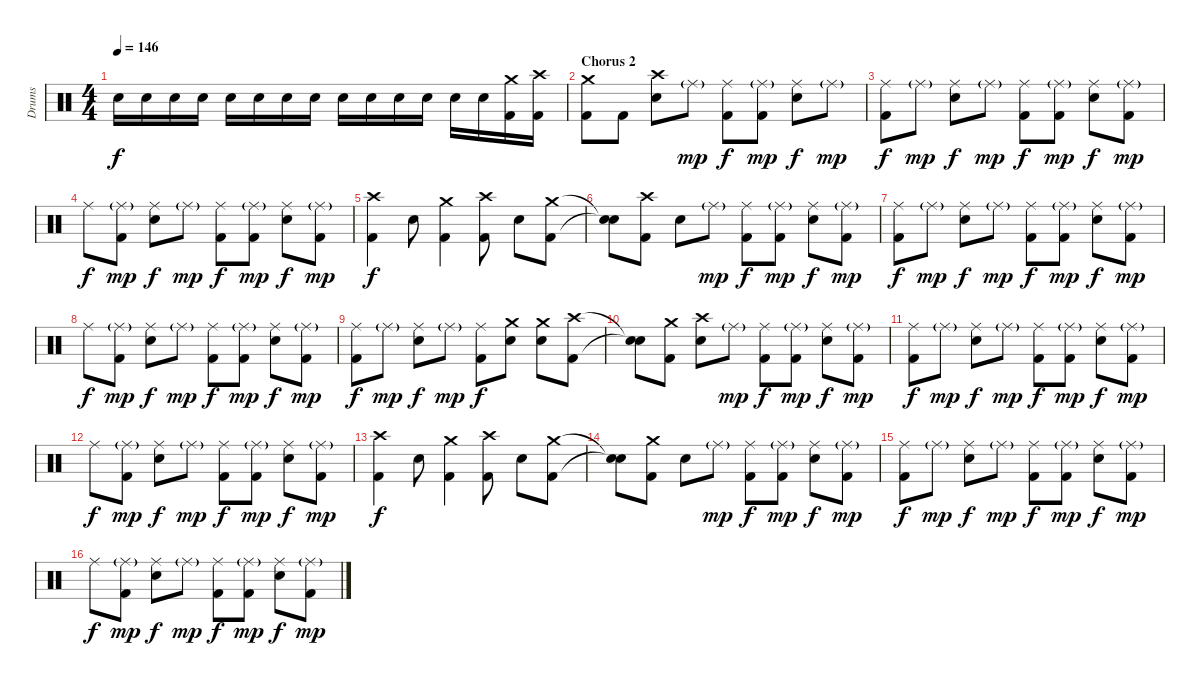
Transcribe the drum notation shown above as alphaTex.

\track ("Drums" "Drums") {instrument percussion}
\staff {score}
\articulation defaults
\ts (4 4)
\tempo 146
\clef neutral
\ks c "Snare (hit) 2".16{dy f} "Snare (hit) 2".16 "Snare (hit) 2".16 "Snare (hit) 2".16 "Snare (hit) 2".16 "Snare (hit) 2".16 "Snare (hit) 2".16 "Snare (hit) 2".16 "Snare (hit) 2".16 "Snare (hit) 2".16 "Snare (hit) 2".16 "Snare (hit) 2".16 "Snare (hit) 2".16 "Snare (hit) 2".16
("Crash medium (hit)" "Kick (hit) 2").16 ("Crash high (hit)" "Kick (hit) 2").16 |
\section ("" "Chorus 2")
("Crash medium (hit)" "Kick (hit) 2").8 "Kick (hit) 2".8 ("Crash high (hit)" "Snare (hit) 2").8 "Ride (middle)"{g}.8{dy mp} ("Ride (middle)" "Kick (hit) 2").8{dy f} ("Ride (middle)"{g} "Kick (hit) 2").8{dy mp} ("Ride (middle)" "Snare (hit) 2").8{dy f} "Ride (middle)"{g}.8{dy mp} |
("Ride (middle)" "Kick (hit) 2").8{dy f} "Ride (middle)"{g}.8{dy mp} ("Ride (middle)" "Snare (hit) 2").8{dy f} "Ride (middle)"{g}.8{dy mp} ("Ride (middle)" "Kick (hit) 2").8{dy f} ("Ride (middle)"{g} "Kick (hit) 2").8{dy mp} ("Ride (middle)" "Snare (hit) 2").8{dy f} ("Ride (middle)"{g} "Kick (hit) 2").8{dy mp} |
"Ride (middle)".8{dy f} ("Ride (middle)"{g} "Kick (hit) 2").8{dy mp} ("Ride (middle)" "Snare (hit) 2").8{dy f} "Ride (middle)"{g}.8{dy mp} ("Ride (middle)" "Kick (hit) 2").8{dy f} ("Ride (middle)"{g} "Kick (hit) 2").8{dy mp} ("Ride (middle)" "Snare (hit) 2").8{dy f} ("Ride (middle)"{g} "Kick (hit) 2").8{dy mp} |
("Crash high (hit)" "Kick (hit) 2").4{dy f} "Snare (hit) 2".8 ("Crash medium (hit)" "Kick (hit) 2").4 ("Crash high (hit)" "Kick (hit) 2").8 "Snare (hit) 2".8 ("Crash medium (hit)" "Kick (hit) 2").8 |
("Snare (hit)"{t} "Snare (hit)"{t}).8 ("Crash high (hit)" "Kick (hit) 2").8 "Snare (hit) 2".8 "Ride (middle)"{g}.8{dy mp} ("Ride (middle)" "Kick (hit) 2").8{dy f} ("Ride (middle)"{g} "Kick (hit) 2").8{dy mp} ("Ride (middle)" "Snare (hit) 2").8{dy f} ("Ride (middle)"{g} "Kick (hit) 2").8{dy mp} |
("Ride (middle)" "Kick (hit) 2").8{dy f} "Ride (middle)"{g}.8{dy mp} ("Ride (middle)" "Snare (hit) 2").8{dy f} "Ride (middle)"{g}.8{dy mp} ("Ride (middle)" "Kick (hit) 2").8{dy f} ("Ride (middle)"{g} "Kick (hit) 2").8{dy mp} ("Ride (middle)" "Snare (hit) 2").8{dy f} ("Ride (middle)"{g} "Kick (hit) 2").8{dy mp} |
"Ride (middle)".8{dy f} ("Ride (middle)"{g} "Kick (hit) 2").8{dy mp} ("Ride (middle)" "Snare (hit) 2").8{dy f} "Ride (middle)"{g}.8{dy mp} ("Ride (middle)" "Kick (hit) 2").8{dy f} ("Ride (middle)"{g} "Kick (hit) 2").8{dy mp} ("Ride (middle)" "Snare (hit) 2").8{dy f} ("Ride (middle)"{g} "Kick (hit) 2").8{dy mp} |
("Ride (middle)" "Kick (hit) 2").8{dy f} "Ride (middle)"{g}.8{dy mp} ("Ride (middle)" "Snare (hit) 2").8{dy f} "Ride (middle)"{g}.8{dy mp} ("Ride (middle)" "Kick (hit) 2").8{dy f} ("Crash medium (hit)" "Snare (hit) 2").8 ("Crash medium (hit)" "Snare (hit) 2").8 ("Crash high (hit)" "Kick (hit) 2").8 |
("Snare (hit)"{t} "Snare (hit)"{t}).8 ("Crash medium (hit)" "Kick (hit) 2").8 ("Crash high (hit)" "Snare (hit) 2").8 "Ride (middle)"{g}.8{dy mp} ("Ride (middle)" "Kick (hit) 2").8{dy f} ("Ride (middle)"{g} "Kick (hit) 2").8{dy mp} ("Ride (middle)" "Snare (hit) 2").8{dy f} ("Ride (middle)"{g} "Kick (hit) 2").8{dy mp} |
("Ride (middle)" "Kick (hit) 2").8{dy f} "Ride (middle)"{g}.8{dy mp} ("Ride (middle)" "Snare (hit) 2").8{dy f} "Ride (middle)"{g}.8{dy mp} ("Ride (middle)" "Kick (hit) 2").8{dy f} ("Ride (middle)"{g} "Kick (hit) 2").8{dy mp} ("Ride (middle)" "Snare (hit) 2").8{dy f} ("Ride (middle)"{g} "Kick (hit) 2").8{dy mp} |
"Ride (middle)".8{dy f} ("Ride (middle)"{g} "Kick (hit) 2").8{dy mp} ("Ride (middle)" "Snare (hit) 2").8{dy f} "Ride (middle)"{g}.8{dy mp} ("Ride (middle)" "Kick (hit) 2").8{dy f} ("Ride (middle)"{g} "Kick (hit) 2").8{dy mp} ("Ride (middle)" "Snare (hit) 2").8{dy f} ("Ride (middle)"{g} "Kick (hit) 2").8{dy mp} |
("Crash high (hit)" "Kick (hit) 2").4{dy f} "Snare (hit) 2".8 ("Crash medium (hit)" "Kick (hit) 2").4 ("Crash high (hit)" "Kick (hit) 2").8 "Snare (hit) 2".8 ("Crash medium (hit)" "Kick (hit) 2").8 |
("Snare (hit)"{t} "Snare (hit)"{t}).8 ("Crash medium (hit)" "Kick (hit) 2").8 "Snare (hit) 2".8 "Ride (middle)"{g}.8{dy mp} ("Ride (middle)" "Kick (hit) 2").8{dy f} ("Ride (middle)"{g} "Kick (hit) 2").8{dy mp} ("Ride (middle)" "Snare (hit) 2").8{dy f} ("Ride (middle)"{g} "Kick (hit) 2").8{dy mp} |
("Ride (middle)" "Kick (hit) 2").8{dy f} "Ride (middle)"{g}.8{dy mp} ("Ride (middle)" "Snare (hit) 2").8{dy f} "Ride (middle)"{g}.8{dy mp} ("Ride (middle)" "Kick (hit) 2").8{dy f} ("Ride (middle)"{g} "Kick (hit) 2").8{dy mp} ("Ride (middle)" "Snare (hit) 2").8{dy f} ("Ride (middle)"{g} "Kick (hit) 2").8{dy mp} |
"Ride (middle)".8{dy f} ("Ride (middle)"{g} "Kick (hit) 2").8{dy mp} ("Ride (middle)" "Snare (hit) 2").8{dy f} "Ride (middle)"{g}.8{dy mp} ("Ride (middle)" "Kick (hit) 2").8{dy f} ("Ride (middle)"{g} "Kick (hit) 2").8{dy mp} ("Ride (middle)" "Snare (hit) 2").8{dy f} ("Ride (middle)"{g} "Kick (hit) 2").8{dy mp}
